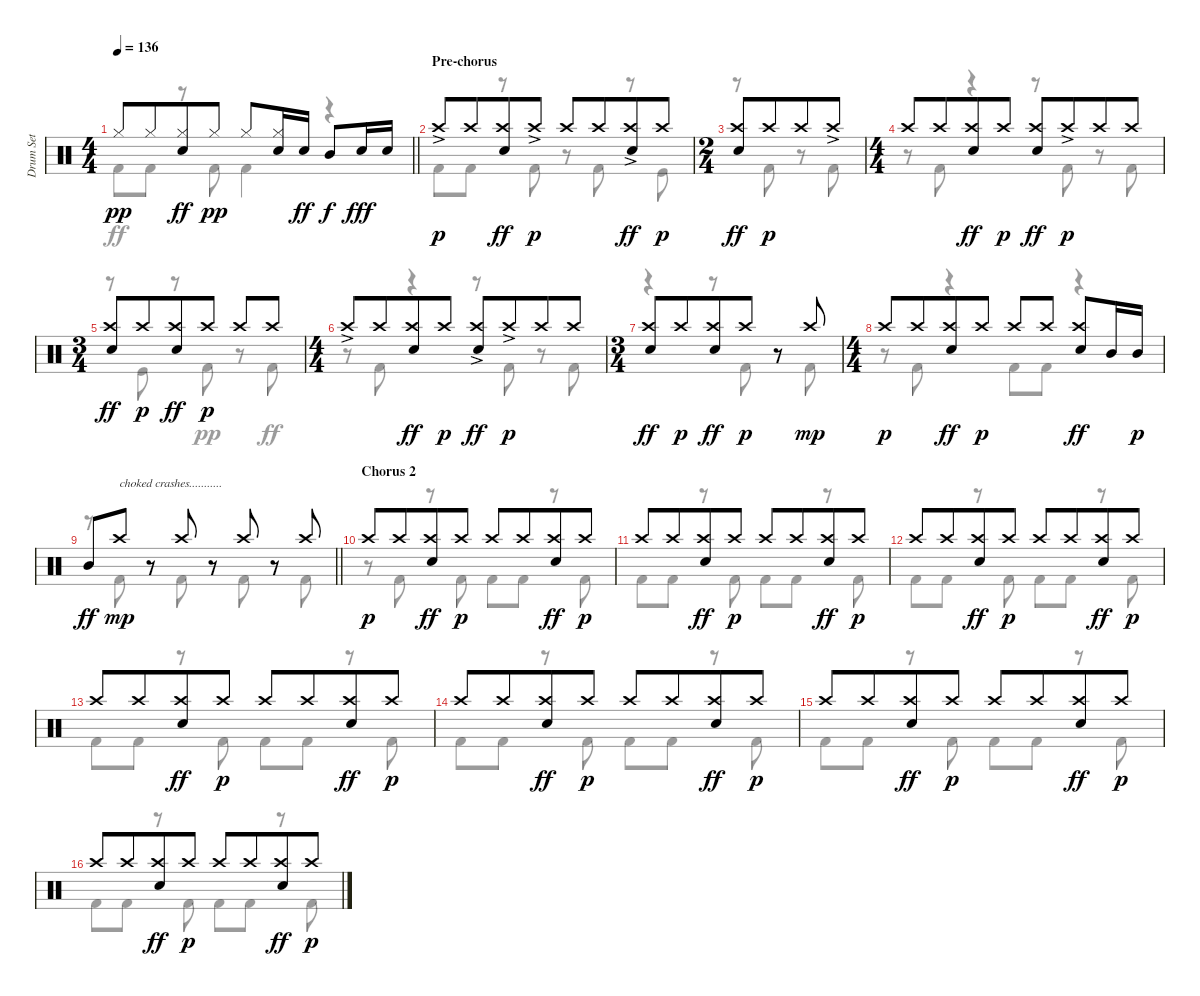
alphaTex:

\track ("Drum Set" "Drum Set") {instrument percussion}
\staff {score}
\articulation defaults
\voice
\ts (4 4)
\tempo 136
\clef neutral
\barLineRight lightlight
\ks c "Hi-Hat (closed)".8{dy pp} "Hi-Hat (closed)".8{beam merge}
("Hi-Hat (closed)" "Electric Snare (hit)").8{dy ff} "Hi-Hat (closed)".8{dy pp} "Hi-Hat (closed)".8 ("Electric Snare (hit)" "Hi-Hat (closed)").16 "Electric Snare (hit)".16{dy ff} "Mid Tom (hit)".8{dy f} "Electric Snare (hit)".16{dy fff} "Electric Snare (hit)".16 |
\section ("" "Pre-chorus")
"Crash high (hit)"{ac}.8{dy p} "Crash high (hit)".8{beam merge} ("Crash high (hit)" "Electric Snare (hit)").8{dy ff} "Crash high (hit)"{ac}.8{dy p} "Crash high (hit)".8 "Crash high (hit)".8{beam merge} ("Crash high (hit)"{ac} "Electric Snare (hit)").8{dy ff} "Crash high (hit)".8{dy p} |
\ts (2 4)
("Crash high (hit)" "Electric Snare (hit)").8{dy ff} "Crash high (hit)".8{dy p beam merge} "Crash high (hit)".8 "Crash high (hit)"{ac}.8 |
\ts (4 4)
"Crash high (hit)".8 "Crash high (hit)".8{beam merge} ("Crash high (hit)" "Electric Snare (hit)").8{dy ff} "Crash high (hit)".8{dy p} ("Crash high (hit)" "Electric Snare (hit)").8{dy ff} "Crash high (hit)"{ac}.8{dy p beam merge} "Crash high (hit)".8 "Crash high (hit)".8 |
\ts (3 4)
("Crash high (hit)" "Electric Snare (hit)").8{dy ff} "Crash high (hit)".8{dy p beam merge} ("Crash high (hit)" "Electric Snare (hit)").8{dy ff} "Crash high (hit)".8{dy p} "Crash high (hit)".8 "Crash high (hit)".8 |
\ts (4 4)
"Crash high (hit)"{ac}.8 "Crash high (hit)".8{beam merge} ("Crash high (hit)" "Electric Snare (hit)").8{dy ff} "Crash high (hit)".8{dy p} ("Crash high (hit)"{ac} "Electric Snare (hit)").8{dy ff} "Crash high (hit)"{ac}.8{dy p beam merge} "Crash high (hit)".8 "Crash high (hit)".8 |
\ts (3 4)
("Crash high (hit)" "Electric Snare (hit)").8{dy ff} "Crash high (hit)".8{dy p beam merge} ("Crash high (hit)" "Electric Snare (hit)").8{dy ff} "Crash high (hit)".8{dy p} r.8 "Crash high (hit)".8{dy mp} |
\ts (4 4)
"Crash high (hit)".8{dy p} "Crash high (hit)".8{beam merge} ("Crash high (hit)" "Electric Snare (hit)").8{dy ff} "Crash high (hit)".8{dy p} "Crash high (hit)".8 "Crash high (hit)".8 ("Crash high (hit)" "Electric Snare (hit)").8{dy ff} "Mid Tom (hit)".16 "Mid Tom (hit)".16{dy p} |
\barLineRight lightlight "Mid Tom (hit)".8{dy ff} "Crash high (hit)".8{txt "choked crashes..........." dy mp}
r.8 "Crash high (hit)".8 r.8 "Crash high (hit)".8 r.8 "Crash high (hit)".8 |
\section ("" "Chorus 2")
"Crash high (hit)".8{dy p} "Crash high (hit)".8{beam merge} ("Crash high (hit)" "Electric Snare (hit)").8{dy ff} "Crash high (hit)".8{dy p} "Crash high (hit)".8 "Crash high (hit)".8{beam merge} ("Crash high (hit)" "Electric Snare (hit)").8{dy ff} "Crash high (hit)".8{dy p} |
"Crash high (hit)".8 "Crash high (hit)".8{beam merge} ("Crash high (hit)" "Electric Snare (hit)").8{dy ff} "Crash high (hit)".8{dy p} "Crash high (hit)".8 "Crash high (hit)".8{beam merge} ("Crash high (hit)" "Electric Snare (hit)").8{dy ff} "Crash high (hit)".8{dy p} |
"Crash high (hit)".8 "Crash high (hit)".8{beam merge} ("Crash high (hit)" "Electric Snare (hit)").8{dy ff} "Crash high (hit)".8{dy p} "Crash high (hit)".8 "Crash high (hit)".8{beam merge} ("Crash high (hit)" "Electric Snare (hit)").8{dy ff} "Crash high (hit)".8{dy p} |
"Crash high (hit)".8 "Crash high (hit)".8{beam merge} ("Crash high (hit)" "Electric Snare (hit)").8{dy ff} "Crash high (hit)".8{dy p} "Crash high (hit)".8 "Crash high (hit)".8{beam merge} ("Crash high (hit)" "Electric Snare (hit)").8{dy ff} "Crash high (hit)".8{dy p} |
"Crash high (hit)".8 "Crash high (hit)".8{beam merge} ("Crash high (hit)" "Electric Snare (hit)").8{dy ff} "Crash high (hit)".8{dy p} "Crash high (hit)".8 "Crash high (hit)".8{beam merge} ("Crash high (hit)" "Electric Snare (hit)").8{dy ff} "Crash high (hit)".8{dy p} |
"Crash high (hit)".8 "Crash high (hit)".8{beam merge} ("Crash high (hit)" "Electric Snare (hit)").8{dy ff} "Crash high (hit)".8{dy p} "Crash high (hit)".8 "Crash high (hit)".8{beam merge} ("Crash high (hit)" "Electric Snare (hit)").8{dy ff} "Crash high (hit)".8{dy p} |
"Crash high (hit)".8 "Crash high (hit)".8{beam merge} ("Crash high (hit)" "Electric Snare (hit)").8{dy ff} "Crash high (hit)".8{dy p} "Crash high (hit)".8 "Crash high (hit)".8{beam merge} ("Crash high (hit)" "Electric Snare (hit)").8{dy ff} "Crash high (hit)".8{dy p}
\voice
\clef neutral
\ottava regular
\simile none
\barLineRight lightlight
\ks c "Kick (hit) 2".8{dy ff} "Kick (hit) 2".8
r.8 "Kick (hit) 2".8 "Kick (hit) 2".4 r.4 |
"Kick (hit) 2".8 "Kick (hit) 2".8 r.8 "Kick (hit) 2".8 r.8 "Kick (hit) 2".8 r.8 "Kick (hit)".8 |
r.8 "Kick (hit) 2".8 r.8 "Kick (hit) 2".8 |
r.8 "Kick (hit) 2".8 r.4 r.8 "Kick (hit) 2".8 r.8 "Kick (hit) 2".8 |
r.8 "Kick (hit)".8 r.8 "Kick (hit) 2".8{dy pp} r.8 "Kick (hit) 2".8{dy ff} |
r.8 "Kick (hit) 2".8 r.4 r.8 "Kick (hit) 2".8 r.8 "Kick (hit) 2".8 |
r.4 r.8 "Kick (hit) 2".8 r.8 "Kick (hit) 2".8 |
r.8 "Kick (hit) 2".8 r.4 "Kick (hit) 2".8 "Kick (hit) 2".8 r.4 |
\barLineRight lightlight
r.8 "Kick (hit) 2".8 r.8 "Kick (hit) 2".8 r.8 "Kick (hit) 2".8 r.8 "Kick (hit) 2".8 |
r.8 "Kick (hit) 2".8 r.8 "Kick (hit) 2".8 "Kick (hit) 2".8 "Kick (hit) 2".8 r.8 "Kick (hit) 2".8 |
"Kick (hit) 2".8 "Kick (hit) 2".8 r.8 "Kick (hit) 2".8 "Kick (hit) 2".8 "Kick (hit) 2".8 r.8 "Kick (hit) 2".8 |
"Kick (hit) 2".8 "Kick (hit) 2".8 r.8 "Kick (hit) 2".8 "Kick (hit) 2".8 "Kick (hit) 2".8 r.8 "Kick (hit) 2".8 |
"Kick (hit) 2".8 "Kick (hit) 2".8 r.8 "Kick (hit) 2".8 "Kick (hit) 2".8 "Kick (hit) 2".8 r.8 "Kick (hit) 2".8 |
"Kick (hit) 2".8 "Kick (hit) 2".8 r.8 "Kick (hit) 2".8 "Kick (hit) 2".8 "Kick (hit) 2".8 r.8 "Kick (hit) 2".8 |
"Kick (hit) 2".8 "Kick (hit) 2".8 r.8 "Kick (hit) 2".8 "Kick (hit) 2".8 "Kick (hit) 2".8 r.8 "Kick (hit) 2".8 |
"Kick (hit) 2".8 "Kick (hit) 2".8 r.8 "Kick (hit) 2".8 "Kick (hit) 2".8 "Kick (hit) 2".8 r.8 "Kick (hit) 2".8
